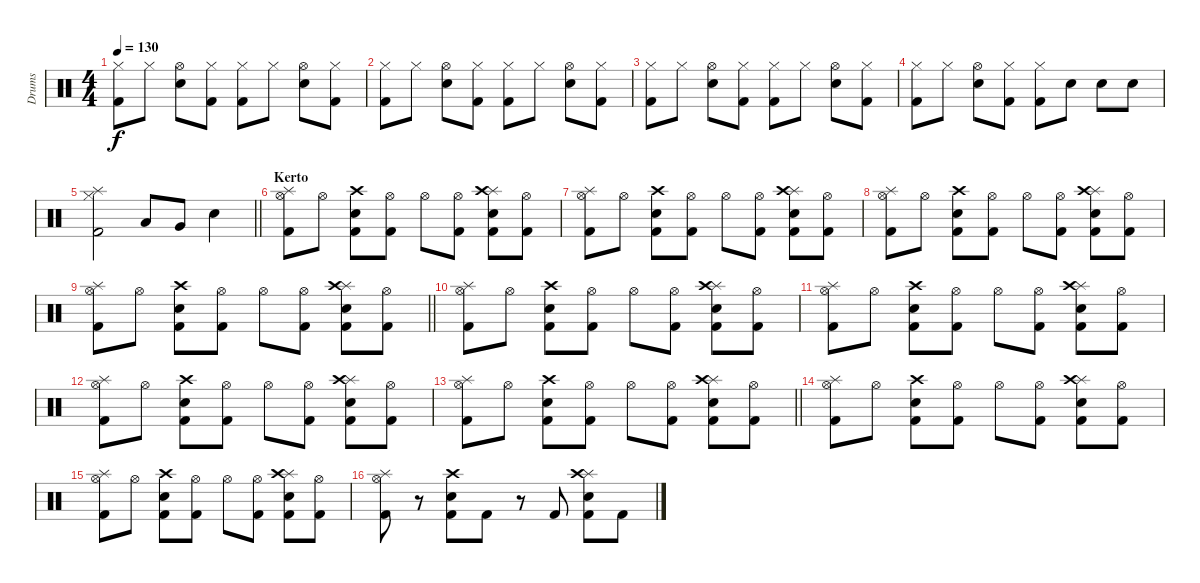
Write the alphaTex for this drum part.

\track ("Drums" "Drums") {instrument percussion}
\staff {score}
\articulation defaults
\ts (4 4)
\tempo 130
\clef neutral
\ks c
("Kick (hit) 2" "Hi-Hat (closed)").8{dy f} "Hi-Hat (closed)".8 ("Electric Snare (hit)" "Hi-Hat (open)").8 ("Kick (hit) 2" "Hi-Hat (closed)").8 ("Kick (hit) 2" "Hi-Hat (closed)").8 "Hi-Hat (closed)".8 ("Electric Snare (hit)" "Hi-Hat (open)").8 ("Kick (hit) 2" "Hi-Hat (closed)").8 |
("Kick (hit) 2" "Hi-Hat (closed)").8 "Hi-Hat (closed)".8 ("Electric Snare (hit)" "Hi-Hat (open)").8 ("Kick (hit) 2" "Hi-Hat (closed)").8 ("Kick (hit) 2" "Hi-Hat (closed)").8 "Hi-Hat (closed)".8 ("Electric Snare (hit)" "Hi-Hat (open)").8 ("Kick (hit) 2" "Hi-Hat (closed)").8 |
("Kick (hit) 2" "Hi-Hat (closed)").8 "Hi-Hat (closed)".8 ("Electric Snare (hit)" "Hi-Hat (open)").8 ("Kick (hit) 2" "Hi-Hat (closed)").8 ("Kick (hit) 2" "Hi-Hat (closed)").8 "Hi-Hat (closed)".8 ("Electric Snare (hit)" "Hi-Hat (open)").8 ("Kick (hit) 2" "Hi-Hat (closed)").8 |
("Kick (hit) 2" "Hi-Hat (closed)").8 "Hi-Hat (closed)".8 ("Electric Snare (hit)" "Hi-Hat (open)").8 ("Kick (hit) 2" "Hi-Hat (closed)").8 ("Kick (hit) 2" "Hi-Hat (closed)").8 "Electric Snare (hit)".8 "Electric Snare (hit)".8 "Electric Snare (hit)".8 |
\barLineRight lightlight
("Splash (hit)" "Kick (hit) 2" "Hi-Hat (closed)").2 "Low Tom (hit)".8 "Very Low Tom (hit)".8 "Electric Snare (hit)".4 |
\section ("" "Kerto")
("Splash (hit)" "Kick (hit) 2" "Hi-Hat (open)").8 "Hi-Hat (open)".8 ("Electric Snare (hit)" "Kick (hit) 2" "Crash high (hit)").8 ("Kick (hit) 2" "Hi-Hat (open)").8 "Hi-Hat (open)".8 ("Kick (hit) 2" "Hi-Hat (open)").8 ("Splash (hit)" "Electric Snare (hit)" "Kick (hit) 2" "Crash high (hit)").8 ("Kick (hit) 2" "Hi-Hat (open)").8 |
("Splash (hit)" "Kick (hit) 2" "Hi-Hat (open)").8 "Hi-Hat (open)".8 ("Electric Snare (hit)" "Kick (hit) 2" "Crash high (hit)").8 ("Kick (hit) 2" "Hi-Hat (open)").8 "Hi-Hat (open)".8 ("Kick (hit) 2" "Hi-Hat (open)").8 ("Splash (hit)" "Electric Snare (hit)" "Kick (hit) 2" "Crash high (hit)").8 ("Kick (hit) 2" "Hi-Hat (open)").8 |
("Splash (hit)" "Kick (hit) 2" "Hi-Hat (open)").8 "Hi-Hat (open)".8 ("Electric Snare (hit)" "Kick (hit) 2" "Crash high (hit)").8 ("Kick (hit) 2" "Hi-Hat (open)").8 "Hi-Hat (open)".8 ("Kick (hit) 2" "Hi-Hat (open)").8 ("Splash (hit)" "Electric Snare (hit)" "Kick (hit) 2" "Crash high (hit)").8 ("Kick (hit) 2" "Hi-Hat (open)").8 |
\barLineRight lightlight
("Splash (hit)" "Kick (hit) 2" "Hi-Hat (open)").8 "Hi-Hat (open)".8 ("Electric Snare (hit)" "Kick (hit) 2" "Crash high (hit)").8 ("Kick (hit) 2" "Hi-Hat (open)").8 "Hi-Hat (open)".8 ("Kick (hit) 2" "Hi-Hat (open)").8 ("Splash (hit)" "Electric Snare (hit)" "Kick (hit) 2" "Crash high (hit)").8 ("Kick (hit) 2" "Hi-Hat (open)").8 |
("Splash (hit)" "Kick (hit) 2" "Hi-Hat (open)").8 "Hi-Hat (open)".8 ("Electric Snare (hit)" "Kick (hit) 2" "Crash high (hit)").8 ("Kick (hit) 2" "Hi-Hat (open)").8 "Hi-Hat (open)".8 ("Kick (hit) 2" "Hi-Hat (open)").8 ("Splash (hit)" "Electric Snare (hit)" "Kick (hit) 2" "Crash high (hit)").8 ("Kick (hit) 2" "Hi-Hat (open)").8 |
("Splash (hit)" "Kick (hit) 2" "Hi-Hat (open)").8 "Hi-Hat (open)".8 ("Electric Snare (hit)" "Kick (hit) 2" "Crash high (hit)").8 ("Kick (hit) 2" "Hi-Hat (open)").8 "Hi-Hat (open)".8 ("Kick (hit) 2" "Hi-Hat (open)").8 ("Splash (hit)" "Electric Snare (hit)" "Kick (hit) 2" "Crash high (hit)").8 ("Kick (hit) 2" "Hi-Hat (open)").8 |
("Splash (hit)" "Kick (hit) 2" "Hi-Hat (open)").8 "Hi-Hat (open)".8 ("Electric Snare (hit)" "Kick (hit) 2" "Crash high (hit)").8 ("Kick (hit) 2" "Hi-Hat (open)").8 "Hi-Hat (open)".8 ("Kick (hit) 2" "Hi-Hat (open)").8 ("Splash (hit)" "Electric Snare (hit)" "Kick (hit) 2" "Crash high (hit)").8 ("Kick (hit) 2" "Hi-Hat (open)").8 |
\barLineRight lightlight
("Splash (hit)" "Kick (hit) 2" "Hi-Hat (open)").8 "Hi-Hat (open)".8 ("Electric Snare (hit)" "Kick (hit) 2" "Crash high (hit)").8 ("Kick (hit) 2" "Hi-Hat (open)").8 "Hi-Hat (open)".8 ("Kick (hit) 2" "Hi-Hat (open)").8 ("Splash (hit)" "Electric Snare (hit)" "Kick (hit) 2" "Crash high (hit)").8 ("Kick (hit) 2" "Hi-Hat (open)").8 |
("Splash (hit)" "Kick (hit) 2" "Hi-Hat (open)").8 "Hi-Hat (open)".8 ("Electric Snare (hit)" "Kick (hit) 2" "Crash high (hit)").8 ("Kick (hit) 2" "Hi-Hat (open)").8 "Hi-Hat (open)".8 ("Kick (hit) 2" "Hi-Hat (open)").8 ("Splash (hit)" "Electric Snare (hit)" "Kick (hit) 2" "Crash high (hit)").8 ("Kick (hit) 2" "Hi-Hat (open)").8 |
("Splash (hit)" "Kick (hit) 2" "Hi-Hat (open)").8 "Hi-Hat (open)".8 ("Electric Snare (hit)" "Kick (hit) 2" "Crash high (hit)").8 ("Kick (hit) 2" "Hi-Hat (open)").8 "Hi-Hat (open)".8 ("Kick (hit) 2" "Hi-Hat (open)").8 ("Splash (hit)" "Electric Snare (hit)" "Kick (hit) 2" "Crash high (hit)").8 ("Kick (hit) 2" "Hi-Hat (open)").8 |
("Splash (hit)" "Kick (hit) 2" "Hi-Hat (open)").8 r.8 ("Electric Snare (hit)" "Kick (hit) 2" "Crash high (hit)").8 "Kick (hit) 2".8 r.8 "Kick (hit) 2".8 ("Splash (hit)" "Electric Snare (hit)" "Kick (hit) 2" "Crash high (hit)").8 "Kick (hit) 2".8
